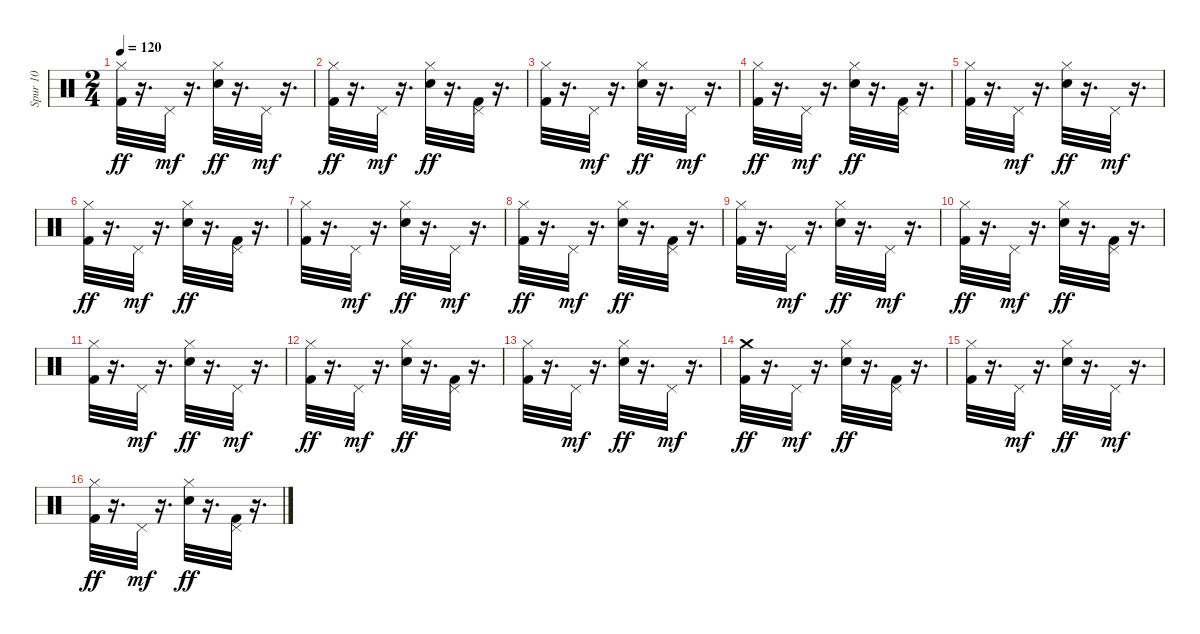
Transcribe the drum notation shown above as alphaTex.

\track ("Spur 10" "Spur 10") {instrument percussion}
\staff {score}
\articulation defaults
\ts (2 4)
\tempo 120
\clef neutral
\ks c
("Hi-Hat (closed)" "Kick (hit) 2").32{dy ff} r.16{d} "Pedal Hi-Hat (hit)".32{dy mf} r.16{d} ("Hi-Hat (closed)" "Snare (hit) 2").32{dy ff} r.16{d} "Pedal Hi-Hat (hit)".32{dy mf} r.16{d} |
("Hi-Hat (closed)" "Kick (hit) 2").32{dy ff} r.16{d} "Pedal Hi-Hat (hit)".32{dy mf} r.16{d} ("Hi-Hat (closed)" "Snare (hit) 2").32{dy ff} r.16{d} ("Pedal Hi-Hat (hit)" "Kick (hit) 2").32 r.16{d} |
("Hi-Hat (closed)" "Kick (hit) 2").32 r.16{d} "Pedal Hi-Hat (hit)".32{dy mf} r.16{d} ("Hi-Hat (closed)" "Snare (hit) 2").32{dy ff} r.16{d} "Pedal Hi-Hat (hit)".32{dy mf} r.16{d} |
("Hi-Hat (closed)" "Kick (hit) 2").32{dy ff} r.16{d} "Pedal Hi-Hat (hit)".32{dy mf} r.16{d} ("Hi-Hat (closed)" "Snare (hit) 2").32{dy ff} r.16{d} ("Pedal Hi-Hat (hit)" "Kick (hit) 2").32 r.16{d} |
("Hi-Hat (closed)" "Kick (hit) 2").32 r.16{d} "Pedal Hi-Hat (hit)".32{dy mf} r.16{d} ("Hi-Hat (closed)" "Snare (hit) 2").32{dy ff} r.16{d} "Pedal Hi-Hat (hit)".32{dy mf} r.16{d} |
("Hi-Hat (closed)" "Kick (hit) 2").32{dy ff} r.16{d} "Pedal Hi-Hat (hit)".32{dy mf} r.16{d} ("Hi-Hat (closed)" "Snare (hit) 2").32{dy ff} r.16{d} ("Pedal Hi-Hat (hit)" "Kick (hit) 2").32 r.16{d} |
("Hi-Hat (closed)" "Kick (hit) 2").32 r.16{d} "Pedal Hi-Hat (hit)".32{dy mf} r.16{d} ("Hi-Hat (closed)" "Snare (hit) 2").32{dy ff} r.16{d} "Pedal Hi-Hat (hit)".32{dy mf} r.16{d} |
("Hi-Hat (closed)" "Kick (hit) 2").32{dy ff} r.16{d} "Pedal Hi-Hat (hit)".32{dy mf} r.16{d} ("Hi-Hat (closed)" "Snare (hit) 2").32{dy ff} r.16{d} ("Pedal Hi-Hat (hit)" "Kick (hit) 2").32 r.16{d} |
("Hi-Hat (closed)" "Kick (hit) 2").32 r.16{d} "Pedal Hi-Hat (hit)".32{dy mf} r.16{d} ("Hi-Hat (closed)" "Snare (hit) 2").32{dy ff} r.16{d} "Pedal Hi-Hat (hit)".32{dy mf} r.16{d} |
("Hi-Hat (closed)" "Kick (hit) 2").32{dy ff} r.16{d} "Pedal Hi-Hat (hit)".32{dy mf} r.16{d} ("Hi-Hat (closed)" "Snare (hit) 2").32{dy ff} r.16{d} ("Pedal Hi-Hat (hit)" "Kick (hit) 2").32 r.16{d} |
("Hi-Hat (closed)" "Kick (hit) 2").32 r.16{d} "Pedal Hi-Hat (hit)".32{dy mf} r.16{d} ("Hi-Hat (closed)" "Snare (hit) 2").32{dy ff} r.16{d} "Pedal Hi-Hat (hit)".32{dy mf} r.16{d} |
("Hi-Hat (closed)" "Kick (hit) 2").32{dy ff} r.16{d} "Pedal Hi-Hat (hit)".32{dy mf} r.16{d} ("Hi-Hat (closed)" "Snare (hit) 2").32{dy ff} r.16{d} ("Pedal Hi-Hat (hit)" "Kick (hit) 2").32 r.16{d} |
("Hi-Hat (closed)" "Kick (hit) 2").32 r.16{d} "Pedal Hi-Hat (hit)".32{dy mf} r.16{d} ("Hi-Hat (closed)" "Snare (hit) 2").32{dy ff} r.16{d} "Pedal Hi-Hat (hit)".32{dy mf} r.16{d} |
("Crash medium (hit)" "Kick (hit) 2").32{dy ff} r.16{d} "Pedal Hi-Hat (hit)".32{dy mf} r.16{d} ("Hi-Hat (closed)" "Snare (hit) 2").32{dy ff} r.16{d} ("Pedal Hi-Hat (hit)" "Kick (hit) 2").32 r.16{d} |
("Hi-Hat (closed)" "Kick (hit) 2").32 r.16{d} "Pedal Hi-Hat (hit)".32{dy mf} r.16{d} ("Hi-Hat (closed)" "Snare (hit) 2").32{dy ff} r.16{d} "Pedal Hi-Hat (hit)".32{dy mf} r.16{d} |
("Hi-Hat (closed)" "Kick (hit) 2").32{dy ff} r.16{d} "Pedal Hi-Hat (hit)".32{dy mf} r.16{d} ("Hi-Hat (closed)" "Snare (hit) 2").32{dy ff} r.16{d} ("Pedal Hi-Hat (hit)" "Kick (hit) 2").32 r.16{d}
